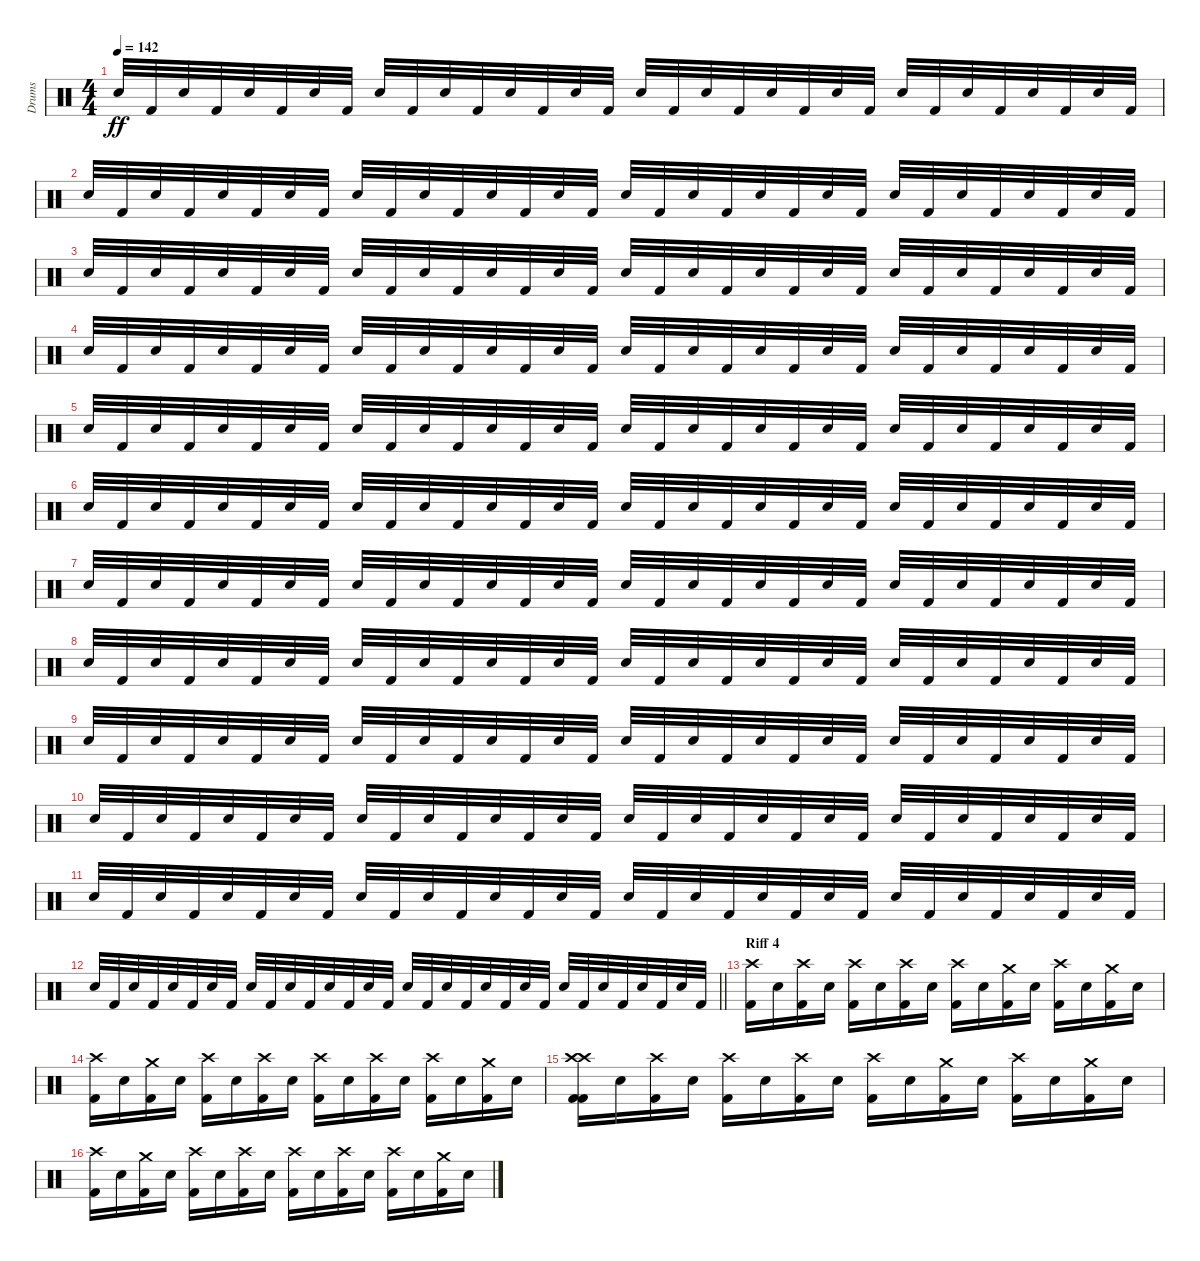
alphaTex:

\track ("Drums" "Drums") {instrument percussion}
\staff {score}
\articulation defaults
\ts (4 4)
\tempo 142
\clef neutral
\ks c "Snare (hit) 2".32{dy ff} "Kick (hit) 2".32 "Snare (hit) 2".32 "Kick (hit) 2".32 "Snare (hit) 2".32 "Kick (hit) 2".32 "Snare (hit) 2".32 "Kick (hit) 2".32 "Snare (hit) 2".32 "Kick (hit) 2".32 "Snare (hit) 2".32 "Kick (hit) 2".32 "Snare (hit) 2".32 "Kick (hit) 2".32 "Snare (hit) 2".32 "Kick (hit) 2".32 "Snare (hit) 2".32 "Kick (hit) 2".32 "Snare (hit) 2".32 "Kick (hit) 2".32 "Snare (hit) 2".32 "Kick (hit) 2".32 "Snare (hit) 2".32 "Kick (hit) 2".32 "Snare (hit) 2".32 "Kick (hit) 2".32 "Snare (hit) 2".32 "Kick (hit) 2".32 "Snare (hit) 2".32 "Kick (hit) 2".32 "Snare (hit) 2".32 "Kick (hit) 2".32
|
"Snare (hit) 2".32 "Kick (hit) 2".32 "Snare (hit) 2".32 "Kick (hit) 2".32 "Snare (hit) 2".32 "Kick (hit) 2".32 "Snare (hit) 2".32 "Kick (hit) 2".32 "Snare (hit) 2".32 "Kick (hit) 2".32 "Snare (hit) 2".32 "Kick (hit) 2".32 "Snare (hit) 2".32 "Kick (hit) 2".32 "Snare (hit) 2".32 "Kick (hit) 2".32 "Snare (hit) 2".32 "Kick (hit) 2".32 "Snare (hit) 2".32 "Kick (hit) 2".32 "Snare (hit) 2".32 "Kick (hit) 2".32 "Snare (hit) 2".32 "Kick (hit) 2".32 "Snare (hit) 2".32 "Kick (hit) 2".32 "Snare (hit) 2".32 "Kick (hit) 2".32 "Snare (hit) 2".32 "Kick (hit) 2".32 "Snare (hit) 2".32 "Kick (hit) 2".32 |
"Snare (hit) 2".32 "Kick (hit) 2".32 "Snare (hit) 2".32 "Kick (hit) 2".32 "Snare (hit) 2".32 "Kick (hit) 2".32 "Snare (hit) 2".32 "Kick (hit) 2".32 "Snare (hit) 2".32 "Kick (hit) 2".32 "Snare (hit) 2".32 "Kick (hit) 2".32 "Snare (hit) 2".32 "Kick (hit) 2".32 "Snare (hit) 2".32 "Kick (hit) 2".32 "Snare (hit) 2".32 "Kick (hit) 2".32 "Snare (hit) 2".32 "Kick (hit) 2".32 "Snare (hit) 2".32 "Kick (hit) 2".32 "Snare (hit) 2".32 "Kick (hit) 2".32 "Snare (hit) 2".32 "Kick (hit) 2".32 "Snare (hit) 2".32 "Kick (hit) 2".32 "Snare (hit) 2".32 "Kick (hit) 2".32 "Snare (hit) 2".32 "Kick (hit) 2".32 |
"Snare (hit) 2".32 "Kick (hit) 2".32 "Snare (hit) 2".32 "Kick (hit) 2".32 "Snare (hit) 2".32 "Kick (hit) 2".32 "Snare (hit) 2".32 "Kick (hit) 2".32 "Snare (hit) 2".32 "Kick (hit) 2".32 "Snare (hit) 2".32 "Kick (hit) 2".32 "Snare (hit) 2".32 "Kick (hit) 2".32 "Snare (hit) 2".32 "Kick (hit) 2".32 "Snare (hit) 2".32 "Kick (hit) 2".32 "Snare (hit) 2".32 "Kick (hit) 2".32 "Snare (hit) 2".32 "Kick (hit) 2".32 "Snare (hit) 2".32 "Kick (hit) 2".32 "Snare (hit) 2".32 "Kick (hit) 2".32 "Snare (hit) 2".32 "Kick (hit) 2".32 "Snare (hit) 2".32 "Kick (hit) 2".32 "Snare (hit) 2".32 "Kick (hit) 2".32 |
"Snare (hit) 2".32 "Kick (hit) 2".32 "Snare (hit) 2".32 "Kick (hit) 2".32 "Snare (hit) 2".32 "Kick (hit) 2".32 "Snare (hit) 2".32 "Kick (hit) 2".32 "Snare (hit) 2".32 "Kick (hit) 2".32 "Snare (hit) 2".32 "Kick (hit) 2".32 "Snare (hit) 2".32 "Kick (hit) 2".32 "Snare (hit) 2".32 "Kick (hit) 2".32 "Snare (hit) 2".32 "Kick (hit) 2".32 "Snare (hit) 2".32 "Kick (hit) 2".32 "Snare (hit) 2".32 "Kick (hit) 2".32 "Snare (hit) 2".32 "Kick (hit) 2".32 "Snare (hit) 2".32 "Kick (hit) 2".32 "Snare (hit) 2".32 "Kick (hit) 2".32 "Snare (hit) 2".32 "Kick (hit) 2".32 "Snare (hit) 2".32 "Kick (hit) 2".32 |
"Snare (hit) 2".32 "Kick (hit) 2".32 "Snare (hit) 2".32 "Kick (hit) 2".32 "Snare (hit) 2".32 "Kick (hit) 2".32 "Snare (hit) 2".32 "Kick (hit) 2".32 "Snare (hit) 2".32 "Kick (hit) 2".32 "Snare (hit) 2".32 "Kick (hit) 2".32 "Snare (hit) 2".32 "Kick (hit) 2".32 "Snare (hit) 2".32 "Kick (hit) 2".32 "Snare (hit) 2".32 "Kick (hit) 2".32 "Snare (hit) 2".32 "Kick (hit) 2".32 "Snare (hit) 2".32 "Kick (hit) 2".32 "Snare (hit) 2".32 "Kick (hit) 2".32 "Snare (hit) 2".32 "Kick (hit) 2".32 "Snare (hit) 2".32 "Kick (hit) 2".32 "Snare (hit) 2".32 "Kick (hit) 2".32 "Snare (hit) 2".32 "Kick (hit) 2".32 |
"Snare (hit) 2".32 "Kick (hit) 2".32 "Snare (hit) 2".32 "Kick (hit) 2".32 "Snare (hit) 2".32 "Kick (hit) 2".32 "Snare (hit) 2".32 "Kick (hit) 2".32 "Snare (hit) 2".32 "Kick (hit) 2".32 "Snare (hit) 2".32 "Kick (hit) 2".32 "Snare (hit) 2".32 "Kick (hit) 2".32 "Snare (hit) 2".32 "Kick (hit) 2".32 "Snare (hit) 2".32 "Kick (hit) 2".32 "Snare (hit) 2".32 "Kick (hit) 2".32 "Snare (hit) 2".32 "Kick (hit) 2".32 "Snare (hit) 2".32 "Kick (hit) 2".32 "Snare (hit) 2".32 "Kick (hit) 2".32 "Snare (hit) 2".32 "Kick (hit) 2".32 "Snare (hit) 2".32 "Kick (hit) 2".32 "Snare (hit) 2".32 "Kick (hit) 2".32 |
"Snare (hit) 2".32 "Kick (hit) 2".32 "Snare (hit) 2".32 "Kick (hit) 2".32 "Snare (hit) 2".32 "Kick (hit) 2".32 "Snare (hit) 2".32 "Kick (hit) 2".32 "Snare (hit) 2".32 "Kick (hit) 2".32 "Snare (hit) 2".32 "Kick (hit) 2".32 "Snare (hit) 2".32 "Kick (hit) 2".32 "Snare (hit) 2".32 "Kick (hit) 2".32 "Snare (hit) 2".32 "Kick (hit) 2".32 "Snare (hit) 2".32 "Kick (hit) 2".32 "Snare (hit) 2".32 "Kick (hit) 2".32 "Snare (hit) 2".32 "Kick (hit) 2".32 "Snare (hit) 2".32 "Kick (hit) 2".32 "Snare (hit) 2".32 "Kick (hit) 2".32 "Snare (hit) 2".32 "Kick (hit) 2".32 "Snare (hit) 2".32 "Kick (hit) 2".32 |
"Snare (hit) 2".32 "Kick (hit) 2".32 "Snare (hit) 2".32 "Kick (hit) 2".32 "Snare (hit) 2".32 "Kick (hit) 2".32 "Snare (hit) 2".32 "Kick (hit) 2".32 "Snare (hit) 2".32 "Kick (hit) 2".32 "Snare (hit) 2".32 "Kick (hit) 2".32 "Snare (hit) 2".32 "Kick (hit) 2".32 "Snare (hit) 2".32 "Kick (hit) 2".32 "Snare (hit) 2".32 "Kick (hit) 2".32 "Snare (hit) 2".32 "Kick (hit) 2".32 "Snare (hit) 2".32 "Kick (hit) 2".32 "Snare (hit) 2".32 "Kick (hit) 2".32 "Snare (hit) 2".32 "Kick (hit) 2".32 "Snare (hit) 2".32 "Kick (hit) 2".32 "Snare (hit) 2".32 "Kick (hit) 2".32 "Snare (hit) 2".32 "Kick (hit) 2".32 |
"Snare (hit) 2".32 "Kick (hit) 2".32 "Snare (hit) 2".32 "Kick (hit) 2".32 "Snare (hit) 2".32 "Kick (hit) 2".32 "Snare (hit) 2".32 "Kick (hit) 2".32 "Snare (hit) 2".32 "Kick (hit) 2".32 "Snare (hit) 2".32 "Kick (hit) 2".32 "Snare (hit) 2".32 "Kick (hit) 2".32 "Snare (hit) 2".32 "Kick (hit) 2".32 "Snare (hit) 2".32 "Kick (hit) 2".32 "Snare (hit) 2".32 "Kick (hit) 2".32 "Snare (hit) 2".32 "Kick (hit) 2".32 "Snare (hit) 2".32 "Kick (hit) 2".32 "Snare (hit) 2".32 "Kick (hit) 2".32 "Snare (hit) 2".32 "Kick (hit) 2".32 "Snare (hit) 2".32 "Kick (hit) 2".32 "Snare (hit) 2".32 "Kick (hit) 2".32 |
"Snare (hit) 2".32 "Kick (hit) 2".32 "Snare (hit) 2".32 "Kick (hit) 2".32 "Snare (hit) 2".32 "Kick (hit) 2".32 "Snare (hit) 2".32 "Kick (hit) 2".32 "Snare (hit) 2".32 "Kick (hit) 2".32 "Snare (hit) 2".32 "Kick (hit) 2".32 "Snare (hit) 2".32 "Kick (hit) 2".32 "Snare (hit) 2".32 "Kick (hit) 2".32 "Snare (hit) 2".32 "Kick (hit) 2".32 "Snare (hit) 2".32 "Kick (hit) 2".32 "Snare (hit) 2".32 "Kick (hit) 2".32 "Snare (hit) 2".32 "Kick (hit) 2".32 "Snare (hit) 2".32 "Kick (hit) 2".32 "Snare (hit) 2".32 "Kick (hit) 2".32 "Snare (hit) 2".32 "Kick (hit) 2".32 "Snare (hit) 2".32 "Kick (hit) 2".32 |
\barLineRight lightlight "Snare (hit) 2".32 "Kick (hit) 2".32 "Snare (hit) 2".32 "Kick (hit) 2".32 "Snare (hit) 2".32 "Kick (hit) 2".32 "Snare (hit) 2".32 "Kick (hit) 2".32 "Snare (hit) 2".32 "Kick (hit) 2".32 "Snare (hit) 2".32 "Kick (hit) 2".32 "Snare (hit) 2".32 "Kick (hit) 2".32 "Snare (hit) 2".32 "Kick (hit) 2".32 "Snare (hit) 2".32 "Kick (hit) 2".32 "Snare (hit) 2".32 "Kick (hit) 2".32 "Snare (hit) 2".32 "Kick (hit) 2".32 "Snare (hit) 2".32 "Kick (hit) 2".32 "Snare (hit) 2".32 "Kick (hit) 2".32 "Snare (hit) 2".32 "Kick (hit) 2".32 "Snare (hit) 2".32 "Kick (hit) 2".32 "Snare (hit) 2".32 "Kick (hit) 2".32
|
\section ("" "Riff 4")
("Crash high (hit)" "Kick (hit) 2").16 "Snare (hit) 2".16 ("Crash high (hit)" "Kick (hit) 2").16 "Snare (hit) 2".16 ("Crash high (hit)" "Kick (hit) 2").16 "Snare (hit) 2".16 ("Crash high (hit)" "Kick (hit) 2").16 "Snare (hit) 2".16 ("Crash high (hit)" "Kick (hit) 2").16 "Snare (hit) 2".16 ("Crash medium (hit)" "Kick (hit) 2").16 "Snare (hit) 2".16 ("Crash high (hit)" "Kick (hit) 2").16 "Snare (hit) 2".16 ("Crash medium (hit)" "Kick (hit) 2").16 "Snare (hit) 2".16 |
("Crash high (hit)" "Kick (hit) 2").16 "Snare (hit) 2".16 ("Crash medium (hit)" "Kick (hit) 2").16 "Snare (hit) 2".16 ("Crash high (hit)" "Kick (hit) 2").16 "Snare (hit) 2".16 ("Crash high (hit)" "Kick (hit) 2").16 "Snare (hit) 2".16 ("Crash high (hit)" "Kick (hit) 2").16 "Snare (hit) 2".16 ("Crash high (hit)" "Kick (hit) 2").16 "Snare (hit) 2".16 ("Crash high (hit)" "Kick (hit) 2").16 "Snare (hit) 2".16 ("Crash medium (hit)" "Kick (hit) 2").16 "Snare (hit) 2".16 |
("Crash high (hit)" "Kick (hit) 2" "Crash high (hit)" "Kick (hit) 2").16 "Snare (hit) 2".16 ("Crash high (hit)" "Kick (hit) 2").16 "Snare (hit) 2".16 ("Crash high (hit)" "Kick (hit) 2").16 "Snare (hit) 2".16 ("Crash high (hit)" "Kick (hit) 2").16 "Snare (hit) 2".16 ("Crash high (hit)" "Kick (hit) 2").16 "Snare (hit) 2".16 ("Crash medium (hit)" "Kick (hit) 2").16 "Snare (hit) 2".16 ("Crash high (hit)" "Kick (hit) 2").16 "Snare (hit) 2".16 ("Crash medium (hit)" "Kick (hit) 2").16 "Snare (hit) 2".16 |
("Crash high (hit)" "Kick (hit) 2").16 "Snare (hit) 2".16 ("Crash medium (hit)" "Kick (hit) 2").16 "Snare (hit) 2".16 ("Crash high (hit)" "Kick (hit) 2").16 "Snare (hit) 2".16 ("Crash high (hit)" "Kick (hit) 2").16 "Snare (hit) 2".16 ("Crash high (hit)" "Kick (hit) 2").16 "Snare (hit) 2".16 ("Crash high (hit)" "Kick (hit) 2").16 "Snare (hit) 2".16 ("Crash high (hit)" "Kick (hit) 2").16 "Snare (hit) 2".16 ("Crash medium (hit)" "Kick (hit) 2").16 "Snare (hit) 2".16
